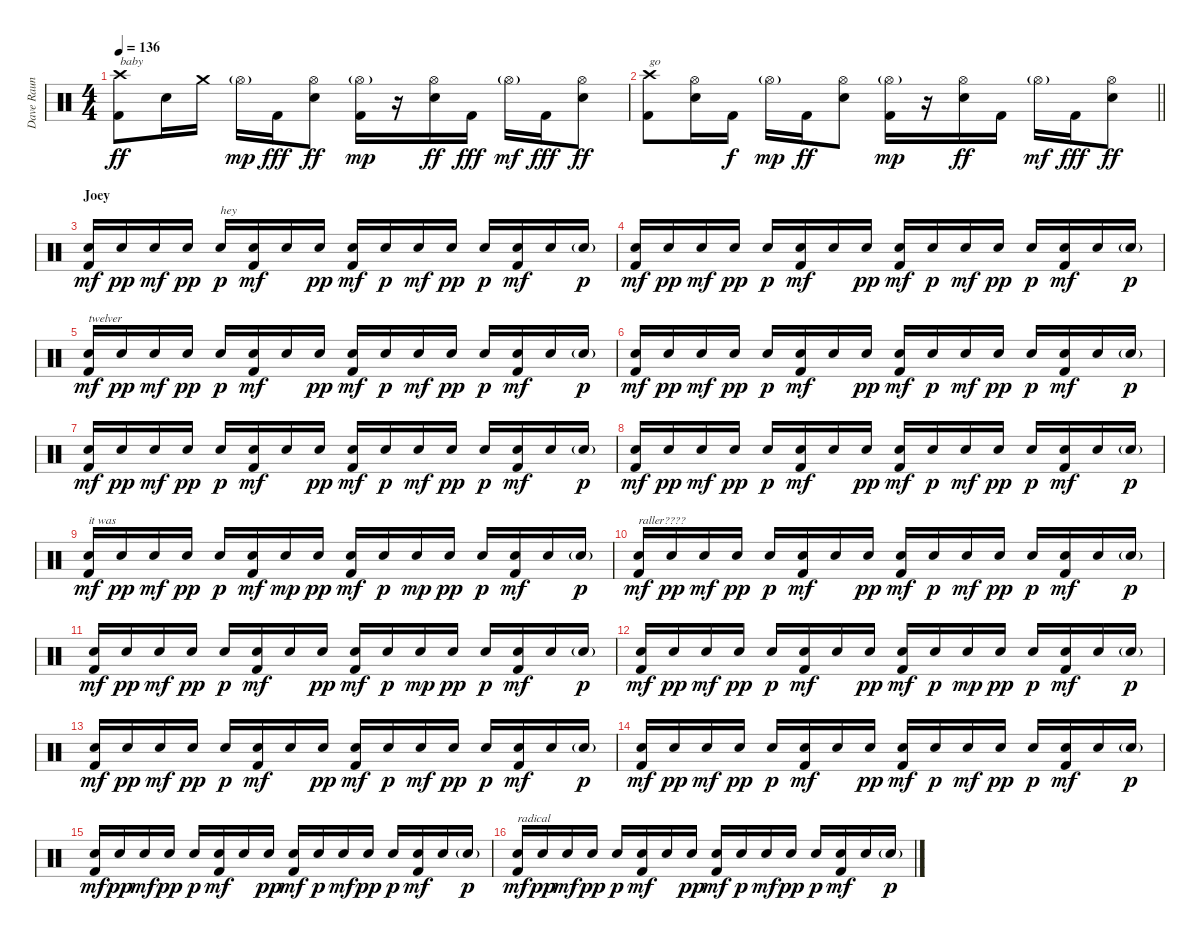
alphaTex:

\track ("Dave Raun" "Dave Raun") {instrument percussion}
\staff {score}
\articulation defaults
\ts (4 4)
\tempo 136
\clef neutral
\ks c
("Crash high (hit)" "Kick (hit) 2").8{txt "baby" dy ff} "Electric Snare (hit)".16 "Crash medium (hit)".16 "Hi-Hat (open)"{g}.16{dy mp} "Kick (hit) 2".16{dy fff} ("Hi-Hat (open)" "Electric Snare (hit)").8{dy ff} ("Hi-Hat (open)"{g} "Kick (hit) 2").16{dy mp} r.16 ("Hi-Hat (open)" "Electric Snare (hit)").16{dy ff} "Kick (hit) 2".16{dy fff} "Hi-Hat (open)"{g}.16{dy mf} "Kick (hit) 2".16{dy fff} ("Hi-Hat (open)" "Electric Snare (hit)").8{dy ff} |
\barLineRight lightlight
("Crash high (hit)" "Kick (hit) 2").8{txt "go"} ("Hi-Hat (open)" "Electric Snare (hit)").16 "Kick (hit) 2".16{dy f} "Hi-Hat (open)"{g}.16{dy mp} "Kick (hit) 2".16{dy ff} ("Hi-Hat (open)" "Electric Snare (hit)").8 ("Hi-Hat (open)"{g} "Kick (hit) 2").16{dy mp} r.16 ("Hi-Hat (open)" "Electric Snare (hit)").16{dy ff} "Kick (hit) 2".16 "Hi-Hat (open)"{g}.16{dy mf} "Kick (hit) 2".16{dy fff} ("Hi-Hat (open)" "Electric Snare (hit)").8{dy ff} |
\section ("" "Joey")
("Electric Snare (hit)" "Kick (hit) 2").16{dy mf} "Electric Snare (hit)".16{dy pp} "Electric Snare (hit)".16{dy mf} "Electric Snare (hit)".16{dy pp} "Electric Snare (hit)".16{txt "hey" dy p} ("Electric Snare (hit)" "Kick (hit) 2").16{dy mf} "Electric Snare (hit)".16 "Electric Snare (hit)".16{dy pp} ("Electric Snare (hit)" "Kick (hit) 2").16{dy mf} "Electric Snare (hit)".16{dy p} "Electric Snare (hit)".16{dy mf} "Electric Snare (hit)".16{dy pp} "Electric Snare (hit)".16{dy p} ("Electric Snare (hit)" "Kick (hit) 2").16{dy mf} "Electric Snare (hit)".16 "Electric Snare (hit)"{g}.16{dy p} |
("Electric Snare (hit)" "Kick (hit) 2").16{dy mf} "Electric Snare (hit)".16{dy pp} "Electric Snare (hit)".16{dy mf} "Electric Snare (hit)".16{dy pp} "Electric Snare (hit)".16{dy p} ("Electric Snare (hit)" "Kick (hit) 2").16{dy mf} "Electric Snare (hit)".16 "Electric Snare (hit)".16{dy pp} ("Electric Snare (hit)" "Kick (hit) 2").16{dy mf} "Electric Snare (hit)".16{dy p} "Electric Snare (hit)".16{dy mf} "Electric Snare (hit)".16{dy pp} "Electric Snare (hit)".16{dy p} ("Electric Snare (hit)" "Kick (hit) 2").16{dy mf} "Electric Snare (hit)".16 "Electric Snare (hit)"{g}.16{dy p} |
("Electric Snare (hit)" "Kick (hit) 2").16{txt "twelver" dy mf} "Electric Snare (hit)".16{dy pp} "Electric Snare (hit)".16{dy mf} "Electric Snare (hit)".16{dy pp} "Electric Snare (hit)".16{dy p} ("Electric Snare (hit)" "Kick (hit) 2").16{dy mf} "Electric Snare (hit)".16 "Electric Snare (hit)".16{dy pp} ("Electric Snare (hit)" "Kick (hit) 2").16{dy mf} "Electric Snare (hit)".16{dy p} "Electric Snare (hit)".16{dy mf} "Electric Snare (hit)".16{dy pp} "Electric Snare (hit)".16{dy p} ("Electric Snare (hit)" "Kick (hit) 2").16{dy mf} "Electric Snare (hit)".16 "Electric Snare (hit)"{g}.16{dy p} |
("Electric Snare (hit)" "Kick (hit) 2").16{dy mf} "Electric Snare (hit)".16{dy pp} "Electric Snare (hit)".16{dy mf} "Electric Snare (hit)".16{dy pp} "Electric Snare (hit)".16{dy p} ("Electric Snare (hit)" "Kick (hit) 2").16{dy mf} "Electric Snare (hit)".16 "Electric Snare (hit)".16{dy pp} ("Electric Snare (hit)" "Kick (hit) 2").16{dy mf} "Electric Snare (hit)".16{dy p} "Electric Snare (hit)".16{dy mf} "Electric Snare (hit)".16{dy pp} "Electric Snare (hit)".16{dy p} ("Electric Snare (hit)" "Kick (hit) 2").16{dy mf} "Electric Snare (hit)".16 "Electric Snare (hit)"{g}.16{dy p} |
("Electric Snare (hit)" "Kick (hit) 2").16{dy mf} "Electric Snare (hit)".16{dy pp} "Electric Snare (hit)".16{dy mf} "Electric Snare (hit)".16{dy pp} "Electric Snare (hit)".16{dy p} ("Electric Snare (hit)" "Kick (hit) 2").16{dy mf} "Electric Snare (hit)".16 "Electric Snare (hit)".16{dy pp} ("Electric Snare (hit)" "Kick (hit) 2").16{dy mf} "Electric Snare (hit)".16{dy p} "Electric Snare (hit)".16{dy mf} "Electric Snare (hit)".16{dy pp} "Electric Snare (hit)".16{dy p} ("Electric Snare (hit)" "Kick (hit) 2").16{dy mf} "Electric Snare (hit)".16 "Electric Snare (hit)"{g}.16{dy p} |
("Electric Snare (hit)" "Kick (hit) 2").16{dy mf} "Electric Snare (hit)".16{dy pp} "Electric Snare (hit)".16{dy mf} "Electric Snare (hit)".16{dy pp} "Electric Snare (hit)".16{dy p} ("Electric Snare (hit)" "Kick (hit) 2").16{dy mf} "Electric Snare (hit)".16 "Electric Snare (hit)".16{dy pp} ("Electric Snare (hit)" "Kick (hit) 2").16{dy mf} "Electric Snare (hit)".16{dy p} "Electric Snare (hit)".16{dy mf} "Electric Snare (hit)".16{dy pp} "Electric Snare (hit)".16{dy p} ("Electric Snare (hit)" "Kick (hit) 2").16{dy mf} "Electric Snare (hit)".16 "Electric Snare (hit)"{g}.16{dy p} |
("Electric Snare (hit)" "Kick (hit) 2").16{txt "it was" dy mf} "Electric Snare (hit)".16{dy pp} "Electric Snare (hit)".16{dy mf} "Electric Snare (hit)".16{dy pp} "Electric Snare (hit)".16{dy p} ("Electric Snare (hit)" "Kick (hit) 2").16{dy mf} "Electric Snare (hit)".16{dy mp} "Electric Snare (hit)".16{dy pp} ("Electric Snare (hit)" "Kick (hit) 2").16{dy mf} "Electric Snare (hit)".16{dy p} "Electric Snare (hit)".16{dy mp} "Electric Snare (hit)".16{dy pp} "Electric Snare (hit)".16{dy p} ("Electric Snare (hit)" "Kick (hit) 2").16{dy mf} "Electric Snare (hit)".16 "Electric Snare (hit)"{g}.16{dy p} |
("Electric Snare (hit)" "Kick (hit) 2").16{txt "raller????" dy mf} "Electric Snare (hit)".16{dy pp} "Electric Snare (hit)".16{dy mf} "Electric Snare (hit)".16{dy pp} "Electric Snare (hit)".16{dy p} ("Electric Snare (hit)" "Kick (hit) 2").16{dy mf} "Electric Snare (hit)".16 "Electric Snare (hit)".16{dy pp} ("Electric Snare (hit)" "Kick (hit) 2").16{dy mf} "Electric Snare (hit)".16{dy p} "Electric Snare (hit)".16{dy mf} "Electric Snare (hit)".16{dy pp} "Electric Snare (hit)".16{dy p} ("Electric Snare (hit)" "Kick (hit) 2").16{dy mf} "Electric Snare (hit)".16 "Electric Snare (hit)"{g}.16{dy p} |
("Electric Snare (hit)" "Kick (hit) 2").16{dy mf} "Electric Snare (hit)".16{dy pp} "Electric Snare (hit)".16{dy mf} "Electric Snare (hit)".16{dy pp} "Electric Snare (hit)".16{dy p} ("Electric Snare (hit)" "Kick (hit) 2").16{dy mf} "Electric Snare (hit)".16 "Electric Snare (hit)".16{dy pp} ("Electric Snare (hit)" "Kick (hit) 2").16{dy mf} "Electric Snare (hit)".16{dy p} "Electric Snare (hit)".16{dy mp} "Electric Snare (hit)".16{dy pp} "Electric Snare (hit)".16{dy p} ("Electric Snare (hit)" "Kick (hit) 2").16{dy mf} "Electric Snare (hit)".16 "Electric Snare (hit)"{g}.16{dy p} |
("Electric Snare (hit)" "Kick (hit) 2").16{dy mf} "Electric Snare (hit)".16{dy pp} "Electric Snare (hit)".16{dy mf} "Electric Snare (hit)".16{dy pp} "Electric Snare (hit)".16{dy p} ("Electric Snare (hit)" "Kick (hit) 2").16{dy mf} "Electric Snare (hit)".16 "Electric Snare (hit)".16{dy pp} ("Electric Snare (hit)" "Kick (hit) 2").16{dy mf} "Electric Snare (hit)".16{dy p} "Electric Snare (hit)".16{dy mp} "Electric Snare (hit)".16{dy pp} "Electric Snare (hit)".16{dy p} ("Electric Snare (hit)" "Kick (hit) 2").16{dy mf} "Electric Snare (hit)".16 "Electric Snare (hit)"{g}.16{dy p} |
("Electric Snare (hit)" "Kick (hit) 2").16{dy mf} "Electric Snare (hit)".16{dy pp} "Electric Snare (hit)".16{dy mf} "Electric Snare (hit)".16{dy pp} "Electric Snare (hit)".16{dy p} ("Electric Snare (hit)" "Kick (hit) 2").16{dy mf} "Electric Snare (hit)".16 "Electric Snare (hit)".16{dy pp} ("Electric Snare (hit)" "Kick (hit) 2").16{dy mf} "Electric Snare (hit)".16{dy p} "Electric Snare (hit)".16{dy mf} "Electric Snare (hit)".16{dy pp} "Electric Snare (hit)".16{dy p} ("Electric Snare (hit)" "Kick (hit) 2").16{dy mf} "Electric Snare (hit)".16 "Electric Snare (hit)"{g}.16{dy p} |
("Electric Snare (hit)" "Kick (hit) 2").16{dy mf} "Electric Snare (hit)".16{dy pp} "Electric Snare (hit)".16{dy mf} "Electric Snare (hit)".16{dy pp} "Electric Snare (hit)".16{dy p} ("Electric Snare (hit)" "Kick (hit) 2").16{dy mf} "Electric Snare (hit)".16 "Electric Snare (hit)".16{dy pp} ("Electric Snare (hit)" "Kick (hit) 2").16{dy mf} "Electric Snare (hit)".16{dy p} "Electric Snare (hit)".16{dy mf} "Electric Snare (hit)".16{dy pp} "Electric Snare (hit)".16{dy p} ("Electric Snare (hit)" "Kick (hit) 2").16{dy mf} "Electric Snare (hit)".16 "Electric Snare (hit)"{g}.16{dy p} |
("Electric Snare (hit)" "Kick (hit) 2").16{dy mf} "Electric Snare (hit)".16{dy pp} "Electric Snare (hit)".16{dy mf} "Electric Snare (hit)".16{dy pp} "Electric Snare (hit)".16{dy p} ("Electric Snare (hit)" "Kick (hit) 2").16{dy mf} "Electric Snare (hit)".16 "Electric Snare (hit)".16{dy pp} ("Electric Snare (hit)" "Kick (hit) 2").16{dy mf} "Electric Snare (hit)".16{dy p} "Electric Snare (hit)".16{dy mf} "Electric Snare (hit)".16{dy pp} "Electric Snare (hit)".16{dy p} ("Electric Snare (hit)" "Kick (hit) 2").16{dy mf} "Electric Snare (hit)".16 "Electric Snare (hit)"{g}.16{dy p} |
("Electric Snare (hit)" "Kick (hit) 2").16{txt "radical" dy mf} "Electric Snare (hit)".16{dy pp} "Electric Snare (hit)".16{dy mf} "Electric Snare (hit)".16{dy pp} "Electric Snare (hit)".16{dy p} ("Electric Snare (hit)" "Kick (hit) 2").16{dy mf} "Electric Snare (hit)".16 "Electric Snare (hit)".16{dy pp} ("Electric Snare (hit)" "Kick (hit) 2").16{dy mf} "Electric Snare (hit)".16{dy p} "Electric Snare (hit)".16{dy mf} "Electric Snare (hit)".16{dy pp} "Electric Snare (hit)".16{dy p} ("Electric Snare (hit)" "Kick (hit) 2").16{dy mf} "Electric Snare (hit)".16 "Electric Snare (hit)"{g}.16{dy p}
